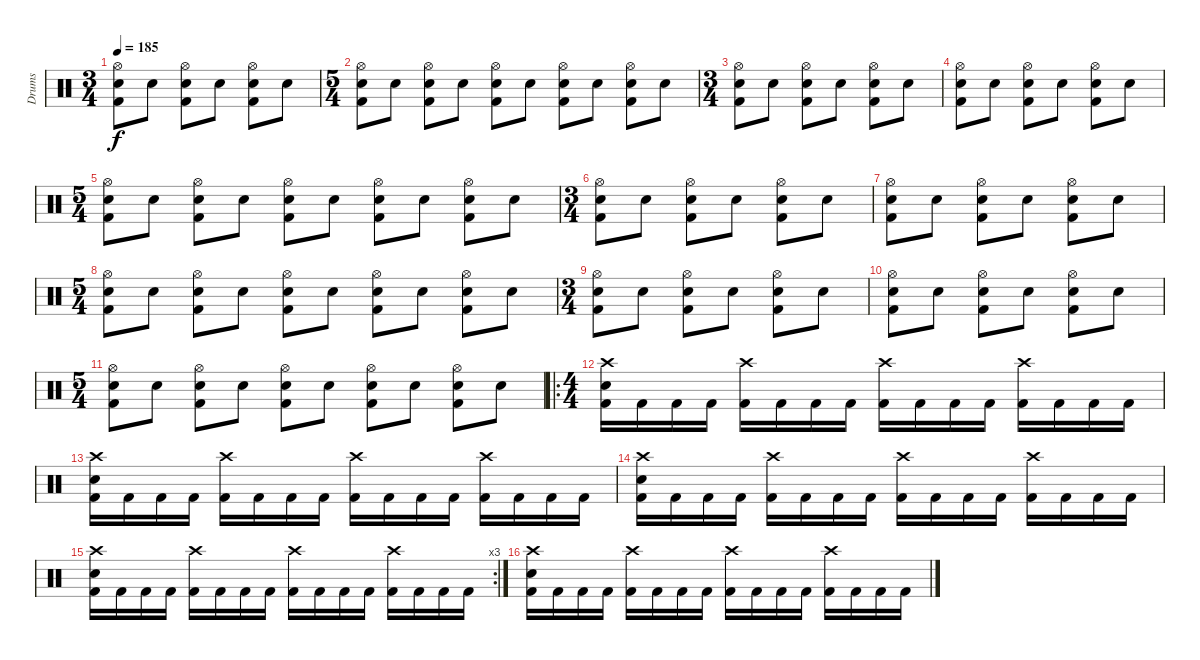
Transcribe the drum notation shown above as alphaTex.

\track ("Drums" "Drums") {instrument percussion}
\staff {score}
\articulation defaults
\ts (3 4)
\tempo 185
\clef neutral
\ks c
("Hi-Hat (open)" "Electric Snare (hit)" "Kick (hit) 2").8{dy f} "Electric Snare (hit)".8 ("Hi-Hat (open)" "Electric Snare (hit)" "Kick (hit) 2").8 "Electric Snare (hit)".8 ("Hi-Hat (open)" "Electric Snare (hit)" "Kick (hit) 2").8 "Electric Snare (hit)".8 |
\ts (5 4)
("Hi-Hat (open)" "Electric Snare (hit)" "Kick (hit) 2").8 "Electric Snare (hit)".8 ("Hi-Hat (open)" "Electric Snare (hit)" "Kick (hit) 2").8 "Electric Snare (hit)".8 ("Hi-Hat (open)" "Electric Snare (hit)" "Kick (hit) 2").8 "Electric Snare (hit)".8 ("Hi-Hat (open)" "Electric Snare (hit)" "Kick (hit) 2").8 "Electric Snare (hit)".8 ("Hi-Hat (open)" "Electric Snare (hit)" "Kick (hit) 2").8 "Electric Snare (hit)".8 |
\ts (3 4)
("Hi-Hat (open)" "Electric Snare (hit)" "Kick (hit) 2").8 "Electric Snare (hit)".8 ("Hi-Hat (open)" "Electric Snare (hit)" "Kick (hit) 2").8 "Electric Snare (hit)".8 ("Hi-Hat (open)" "Electric Snare (hit)" "Kick (hit) 2").8 "Electric Snare (hit)".8 |
("Hi-Hat (open)" "Electric Snare (hit)" "Kick (hit) 2").8 "Electric Snare (hit)".8 ("Hi-Hat (open)" "Electric Snare (hit)" "Kick (hit) 2").8 "Electric Snare (hit)".8 ("Hi-Hat (open)" "Electric Snare (hit)" "Kick (hit) 2").8 "Electric Snare (hit)".8 |
\ts (5 4)
("Hi-Hat (open)" "Electric Snare (hit)" "Kick (hit) 2").8 "Electric Snare (hit)".8 ("Hi-Hat (open)" "Electric Snare (hit)" "Kick (hit) 2").8 "Electric Snare (hit)".8 ("Hi-Hat (open)" "Electric Snare (hit)" "Kick (hit) 2").8 "Electric Snare (hit)".8 ("Hi-Hat (open)" "Electric Snare (hit)" "Kick (hit) 2").8 "Electric Snare (hit)".8 ("Hi-Hat (open)" "Electric Snare (hit)" "Kick (hit) 2").8 "Electric Snare (hit)".8 |
\ts (3 4)
("Hi-Hat (open)" "Electric Snare (hit)" "Kick (hit) 2").8 "Electric Snare (hit)".8 ("Hi-Hat (open)" "Electric Snare (hit)" "Kick (hit) 2").8 "Electric Snare (hit)".8 ("Hi-Hat (open)" "Electric Snare (hit)" "Kick (hit) 2").8 "Electric Snare (hit)".8 |
("Hi-Hat (open)" "Electric Snare (hit)" "Kick (hit) 2").8 "Electric Snare (hit)".8 ("Hi-Hat (open)" "Electric Snare (hit)" "Kick (hit) 2").8 "Electric Snare (hit)".8 ("Hi-Hat (open)" "Electric Snare (hit)" "Kick (hit) 2").8 "Electric Snare (hit)".8 |
\ts (5 4)
("Hi-Hat (open)" "Electric Snare (hit)" "Kick (hit) 2").8 "Electric Snare (hit)".8 ("Hi-Hat (open)" "Electric Snare (hit)" "Kick (hit) 2").8 "Electric Snare (hit)".8 ("Hi-Hat (open)" "Electric Snare (hit)" "Kick (hit) 2").8 "Electric Snare (hit)".8 ("Hi-Hat (open)" "Electric Snare (hit)" "Kick (hit) 2").8 "Electric Snare (hit)".8 ("Hi-Hat (open)" "Electric Snare (hit)" "Kick (hit) 2").8 "Electric Snare (hit)".8 |
\ts (3 4)
("Hi-Hat (open)" "Electric Snare (hit)" "Kick (hit) 2").8 "Electric Snare (hit)".8 ("Hi-Hat (open)" "Electric Snare (hit)" "Kick (hit) 2").8 "Electric Snare (hit)".8 ("Hi-Hat (open)" "Electric Snare (hit)" "Kick (hit) 2").8 "Electric Snare (hit)".8 |
("Hi-Hat (open)" "Electric Snare (hit)" "Kick (hit) 2").8 "Electric Snare (hit)".8 ("Hi-Hat (open)" "Electric Snare (hit)" "Kick (hit) 2").8 "Electric Snare (hit)".8 ("Hi-Hat (open)" "Electric Snare (hit)" "Kick (hit) 2").8 "Electric Snare (hit)".8 |
\ts (5 4)
("Hi-Hat (open)" "Electric Snare (hit)" "Kick (hit) 2").8 "Electric Snare (hit)".8 ("Hi-Hat (open)" "Electric Snare (hit)" "Kick (hit) 2").8 "Electric Snare (hit)".8 ("Hi-Hat (open)" "Electric Snare (hit)" "Kick (hit) 2").8 "Electric Snare (hit)".8 ("Hi-Hat (open)" "Electric Snare (hit)" "Kick (hit) 2").8 "Electric Snare (hit)".8 ("Hi-Hat (open)" "Electric Snare (hit)" "Kick (hit) 2").8 "Electric Snare (hit)".8 |
\ro
\ts (4 4)
("Crash high (hit)" "Electric Snare (hit)" "Kick (hit) 2").16 "Kick (hit) 2".16 "Kick (hit) 2".16 "Kick (hit) 2".16 ("Crash high (hit)" "Kick (hit) 2").16 "Kick (hit) 2".16 "Kick (hit) 2".16 "Kick (hit) 2".16 ("Crash high (hit)" "Kick (hit) 2").16 "Kick (hit) 2".16 "Kick (hit) 2".16 "Kick (hit) 2".16 ("Crash high (hit)" "Kick (hit) 2").16 "Kick (hit) 2".16 "Kick (hit) 2".16 "Kick (hit) 2".16 |
("Crash high (hit)" "Electric Snare (hit)" "Kick (hit) 2").16 "Kick (hit) 2".16 "Kick (hit) 2".16 "Kick (hit) 2".16 ("Crash high (hit)" "Kick (hit) 2").16 "Kick (hit) 2".16 "Kick (hit) 2".16 "Kick (hit) 2".16 ("Crash high (hit)" "Kick (hit) 2").16 "Kick (hit) 2".16 "Kick (hit) 2".16 "Kick (hit) 2".16 ("Crash high (hit)" "Kick (hit) 2").16 "Kick (hit) 2".16 "Kick (hit) 2".16 "Kick (hit) 2".16 |
("Crash high (hit)" "Electric Snare (hit)" "Kick (hit) 2").16 "Kick (hit) 2".16 "Kick (hit) 2".16 "Kick (hit) 2".16 ("Crash high (hit)" "Kick (hit) 2").16 "Kick (hit) 2".16 "Kick (hit) 2".16 "Kick (hit) 2".16 ("Crash high (hit)" "Kick (hit) 2").16 "Kick (hit) 2".16 "Kick (hit) 2".16 "Kick (hit) 2".16 ("Crash high (hit)" "Kick (hit) 2").16 "Kick (hit) 2".16 "Kick (hit) 2".16 "Kick (hit) 2".16 |
\rc 3
("Crash high (hit)" "Electric Snare (hit)" "Kick (hit) 2").16 "Kick (hit) 2".16 "Kick (hit) 2".16 "Kick (hit) 2".16 ("Crash high (hit)" "Kick (hit) 2").16 "Kick (hit) 2".16 "Kick (hit) 2".16 "Kick (hit) 2".16 ("Crash high (hit)" "Kick (hit) 2").16 "Kick (hit) 2".16 "Kick (hit) 2".16 "Kick (hit) 2".16 ("Crash high (hit)" "Kick (hit) 2").16 "Kick (hit) 2".16 "Kick (hit) 2".16 "Kick (hit) 2".16 |
("Crash high (hit)" "Electric Snare (hit)" "Kick (hit) 2").16 "Kick (hit) 2".16 "Kick (hit) 2".16 "Kick (hit) 2".16 ("Crash high (hit)" "Kick (hit) 2").16 "Kick (hit) 2".16 "Kick (hit) 2".16 "Kick (hit) 2".16 ("Crash high (hit)" "Kick (hit) 2").16 "Kick (hit) 2".16 "Kick (hit) 2".16 "Kick (hit) 2".16 ("Crash high (hit)" "Kick (hit) 2").16 "Kick (hit) 2".16 "Kick (hit) 2".16 "Kick (hit) 2".16
